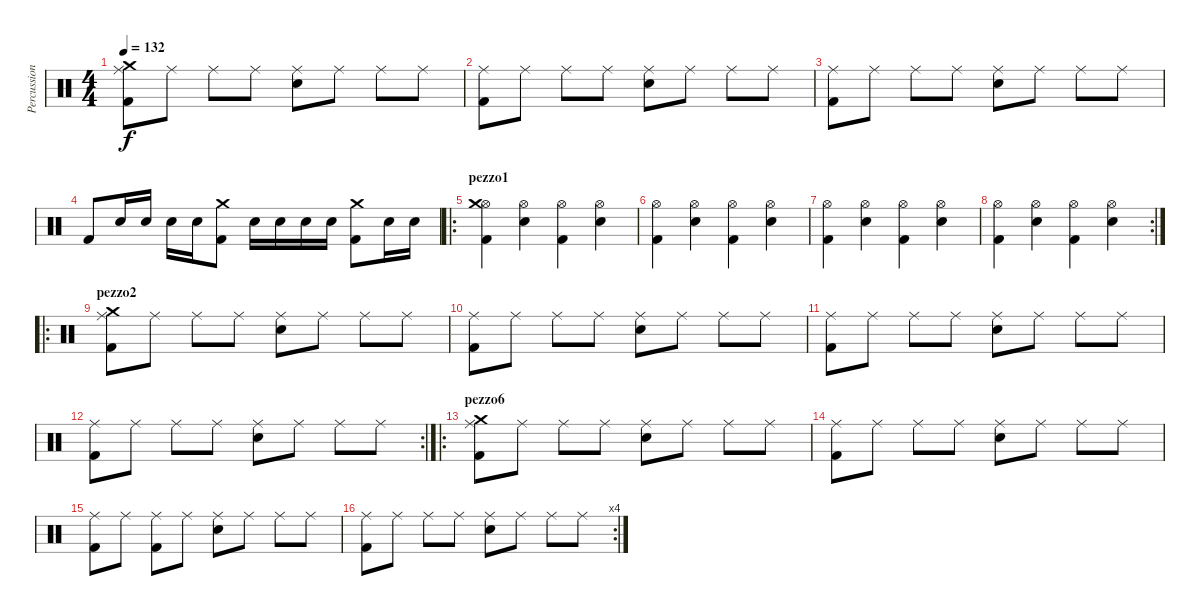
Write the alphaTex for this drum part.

\track ("Percussioni" "Percussion") {instrument percussion}
\staff {score}
\articulation defaults
\ts (4 4)
\tempo 132
\clef neutral
\ks c
("Kick (hit) 2" "Ride (middle)" "Crash medium (hit)").8{dy f} "Ride (middle)".8 "Ride (middle)".8 "Ride (middle)".8 ("Electric Snare (hit)" "Ride (middle)").8 "Ride (middle)".8 "Ride (middle)".8 "Ride (middle)".8 |
("Kick (hit) 2" "Ride (middle)").8 "Ride (middle)".8 "Ride (middle)".8 "Ride (middle)".8 ("Electric Snare (hit)" "Ride (middle)").8 "Ride (middle)".8 "Ride (middle)".8 "Ride (middle)".8 |
("Kick (hit) 2" "Ride (middle)").8 "Ride (middle)".8 "Ride (middle)".8 "Ride (middle)".8 ("Electric Snare (hit)" "Ride (middle)").8 "Ride (middle)".8 "Ride (middle)".8 "Ride (middle)".8 |
"Kick (hit) 2".8 "Electric Snare (hit)".16 "Electric Snare (hit)".16 "Electric Snare (hit)".16 "Electric Snare (hit)".16 ("Kick (hit) 2" "Crash medium (hit)").8 "Electric Snare (hit)".16 "Electric Snare (hit)".16 "Electric Snare (hit)".16 "Electric Snare (hit)".16 ("Kick (hit) 2" "Crash medium (hit)").8 "Electric Snare (hit)".16 "Electric Snare (hit)".16 |
\ro
\section ("" "pezzo1")
("Kick (hit) 2" "Hi-Hat (open)" "Crash medium (hit)").4 ("Electric Snare (hit)" "Hi-Hat (open)").4 ("Kick (hit) 2" "Hi-Hat (open)").4 ("Electric Snare (hit)" "Hi-Hat (open)").4 |
("Kick (hit) 2" "Hi-Hat (open)").4 ("Electric Snare (hit)" "Hi-Hat (open)").4 ("Kick (hit) 2" "Hi-Hat (open)").4 ("Electric Snare (hit)" "Hi-Hat (open)").4 |
("Kick (hit) 2" "Hi-Hat (open)").4 ("Electric Snare (hit)" "Hi-Hat (open)").4 ("Kick (hit) 2" "Hi-Hat (open)").4 ("Electric Snare (hit)" "Hi-Hat (open)").4 |
\rc 2
("Kick (hit) 2" "Hi-Hat (open)").4 ("Electric Snare (hit)" "Hi-Hat (open)").4 ("Kick (hit) 2" "Hi-Hat (open)").4 ("Electric Snare (hit)" "Hi-Hat (open)").4 |
\ro
\section ("" "pezzo2")
("Kick (hit) 2" "Ride (middle)" "Crash medium (hit)").8 "Ride (middle)".8 "Ride (middle)".8 "Ride (middle)".8 ("Electric Snare (hit)" "Ride (middle)").8 "Ride (middle)".8 "Ride (middle)".8 "Ride (middle)".8 |
("Kick (hit) 2" "Ride (middle)").8 "Ride (middle)".8 "Ride (middle)".8 "Ride (middle)".8 ("Electric Snare (hit)" "Ride (middle)").8 "Ride (middle)".8 "Ride (middle)".8 "Ride (middle)".8 |
("Kick (hit) 2" "Ride (middle)").8 "Ride (middle)".8 "Ride (middle)".8 "Ride (middle)".8 ("Electric Snare (hit)" "Ride (middle)").8 "Ride (middle)".8 "Ride (middle)".8 "Ride (middle)".8 |
\rc 2
("Kick (hit) 2" "Ride (middle)").8 "Ride (middle)".8 "Ride (middle)".8 "Ride (middle)".8 ("Electric Snare (hit)" "Ride (middle)").8 "Ride (middle)".8 "Ride (middle)".8 "Ride (middle)".8 |
\ro
\section ("" "pezzo6")
("Kick (hit) 2" "Ride (middle)" "Crash medium (hit)").8 "Ride (middle)".8 "Ride (middle)".8 "Ride (middle)".8 ("Electric Snare (hit)" "Ride (middle)").8 "Ride (middle)".8 "Ride (middle)".8 "Ride (middle)".8 |
("Kick (hit) 2" "Ride (middle)").8 "Ride (middle)".8 "Ride (middle)".8 "Ride (middle)".8 ("Electric Snare (hit)" "Ride (middle)").8 "Ride (middle)".8 "Ride (middle)".8 "Ride (middle)".8 |
("Kick (hit) 2" "Ride (middle)").8 "Ride (middle)".8 ("Kick (hit) 2" "Ride (middle)").8 "Ride (middle)".8 ("Electric Snare (hit)" "Ride (middle)").8 "Ride (middle)".8 "Ride (middle)".8 "Ride (middle)".8 |
\rc 4
("Kick (hit) 2" "Ride (middle)").8 "Ride (middle)".8 "Ride (middle)".8 "Ride (middle)".8 ("Electric Snare (hit)" "Ride (middle)").8 "Ride (middle)".8 "Ride (middle)".8 "Ride (middle)".8
